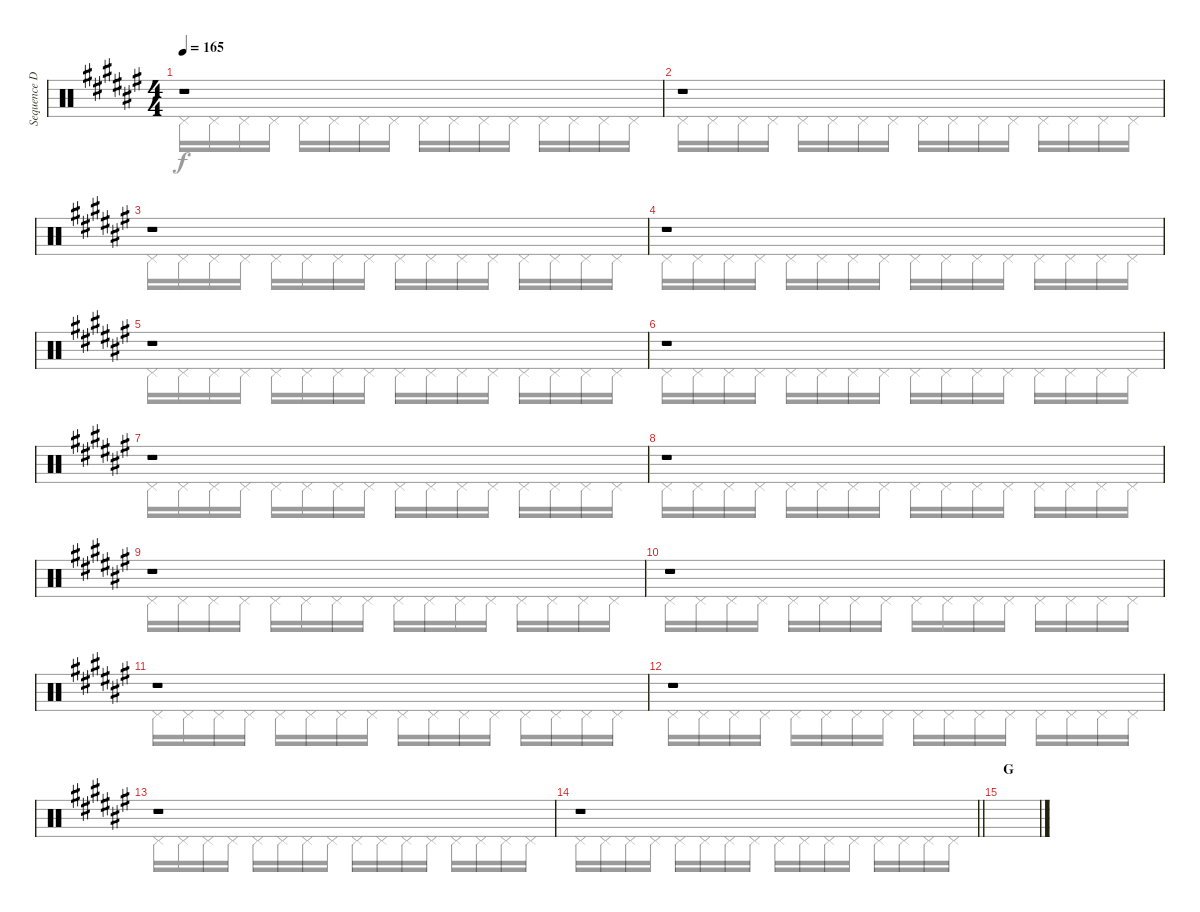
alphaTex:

\track ("Sequence Drums" "Sequence D") {instrument percussion}
\staff {score}
\articulation defaults
\voice
\ts (4 4)
\tempo 165
\clef neutral
\ks f#
r.1{dy p} |
r.1 |
r.1 |
r.1 |
r.1 |
r.1 |
r.1 |
r.1 |
r.1 |
r.1 |
r.1 |
r.1 |
r.1 |
\barLineRight lightlight
r.1 |
\section ("" "G")
|
\voice
\clef neutral
\ottava regular
\simile none
\ks f# "Pedal Hi-Hat (hit)".16{dy f} "Pedal Hi-Hat (hit)".16 "Pedal Hi-Hat (hit)".16 "Pedal Hi-Hat (hit)".16 "Pedal Hi-Hat (hit)".16 "Pedal Hi-Hat (hit)".16 "Pedal Hi-Hat (hit)".16 "Pedal Hi-Hat (hit)".16 "Pedal Hi-Hat (hit)".16 "Pedal Hi-Hat (hit)".16 "Pedal Hi-Hat (hit)".16 "Pedal Hi-Hat (hit)".16 "Pedal Hi-Hat (hit)".16 "Pedal Hi-Hat (hit)".16 "Pedal Hi-Hat (hit)".16 "Pedal Hi-Hat (hit)".16
|
"Pedal Hi-Hat (hit)".16 "Pedal Hi-Hat (hit)".16 "Pedal Hi-Hat (hit)".16 "Pedal Hi-Hat (hit)".16 "Pedal Hi-Hat (hit)".16 "Pedal Hi-Hat (hit)".16 "Pedal Hi-Hat (hit)".16 "Pedal Hi-Hat (hit)".16 "Pedal Hi-Hat (hit)".16 "Pedal Hi-Hat (hit)".16 "Pedal Hi-Hat (hit)".16 "Pedal Hi-Hat (hit)".16 "Pedal Hi-Hat (hit)".16 "Pedal Hi-Hat (hit)".16 "Pedal Hi-Hat (hit)".16 "Pedal Hi-Hat (hit)".16 |
"Pedal Hi-Hat (hit)".16 "Pedal Hi-Hat (hit)".16 "Pedal Hi-Hat (hit)".16 "Pedal Hi-Hat (hit)".16 "Pedal Hi-Hat (hit)".16 "Pedal Hi-Hat (hit)".16 "Pedal Hi-Hat (hit)".16 "Pedal Hi-Hat (hit)".16 "Pedal Hi-Hat (hit)".16 "Pedal Hi-Hat (hit)".16 "Pedal Hi-Hat (hit)".16 "Pedal Hi-Hat (hit)".16 "Pedal Hi-Hat (hit)".16 "Pedal Hi-Hat (hit)".16 "Pedal Hi-Hat (hit)".16 "Pedal Hi-Hat (hit)".16 |
"Pedal Hi-Hat (hit)".16 "Pedal Hi-Hat (hit)".16 "Pedal Hi-Hat (hit)".16 "Pedal Hi-Hat (hit)".16 "Pedal Hi-Hat (hit)".16 "Pedal Hi-Hat (hit)".16 "Pedal Hi-Hat (hit)".16 "Pedal Hi-Hat (hit)".16 "Pedal Hi-Hat (hit)".16 "Pedal Hi-Hat (hit)".16 "Pedal Hi-Hat (hit)".16 "Pedal Hi-Hat (hit)".16 "Pedal Hi-Hat (hit)".16 "Pedal Hi-Hat (hit)".16 "Pedal Hi-Hat (hit)".16 "Pedal Hi-Hat (hit)".16 |
"Pedal Hi-Hat (hit)".16 "Pedal Hi-Hat (hit)".16 "Pedal Hi-Hat (hit)".16 "Pedal Hi-Hat (hit)".16 "Pedal Hi-Hat (hit)".16 "Pedal Hi-Hat (hit)".16 "Pedal Hi-Hat (hit)".16 "Pedal Hi-Hat (hit)".16 "Pedal Hi-Hat (hit)".16 "Pedal Hi-Hat (hit)".16 "Pedal Hi-Hat (hit)".16 "Pedal Hi-Hat (hit)".16 "Pedal Hi-Hat (hit)".16 "Pedal Hi-Hat (hit)".16 "Pedal Hi-Hat (hit)".16 "Pedal Hi-Hat (hit)".16 |
"Pedal Hi-Hat (hit)".16 "Pedal Hi-Hat (hit)".16 "Pedal Hi-Hat (hit)".16 "Pedal Hi-Hat (hit)".16 "Pedal Hi-Hat (hit)".16 "Pedal Hi-Hat (hit)".16 "Pedal Hi-Hat (hit)".16 "Pedal Hi-Hat (hit)".16 "Pedal Hi-Hat (hit)".16 "Pedal Hi-Hat (hit)".16 "Pedal Hi-Hat (hit)".16 "Pedal Hi-Hat (hit)".16 "Pedal Hi-Hat (hit)".16 "Pedal Hi-Hat (hit)".16 "Pedal Hi-Hat (hit)".16 "Pedal Hi-Hat (hit)".16 |
"Pedal Hi-Hat (hit)".16 "Pedal Hi-Hat (hit)".16 "Pedal Hi-Hat (hit)".16 "Pedal Hi-Hat (hit)".16 "Pedal Hi-Hat (hit)".16 "Pedal Hi-Hat (hit)".16 "Pedal Hi-Hat (hit)".16 "Pedal Hi-Hat (hit)".16 "Pedal Hi-Hat (hit)".16 "Pedal Hi-Hat (hit)".16 "Pedal Hi-Hat (hit)".16 "Pedal Hi-Hat (hit)".16 "Pedal Hi-Hat (hit)".16 "Pedal Hi-Hat (hit)".16 "Pedal Hi-Hat (hit)".16 "Pedal Hi-Hat (hit)".16 |
"Pedal Hi-Hat (hit)".16 "Pedal Hi-Hat (hit)".16 "Pedal Hi-Hat (hit)".16 "Pedal Hi-Hat (hit)".16 "Pedal Hi-Hat (hit)".16 "Pedal Hi-Hat (hit)".16 "Pedal Hi-Hat (hit)".16 "Pedal Hi-Hat (hit)".16 "Pedal Hi-Hat (hit)".16 "Pedal Hi-Hat (hit)".16 "Pedal Hi-Hat (hit)".16 "Pedal Hi-Hat (hit)".16 "Pedal Hi-Hat (hit)".16 "Pedal Hi-Hat (hit)".16 "Pedal Hi-Hat (hit)".16 "Pedal Hi-Hat (hit)".16 |
"Pedal Hi-Hat (hit)".16 "Pedal Hi-Hat (hit)".16 "Pedal Hi-Hat (hit)".16 "Pedal Hi-Hat (hit)".16 "Pedal Hi-Hat (hit)".16 "Pedal Hi-Hat (hit)".16 "Pedal Hi-Hat (hit)".16 "Pedal Hi-Hat (hit)".16 "Pedal Hi-Hat (hit)".16 "Pedal Hi-Hat (hit)".16 "Pedal Hi-Hat (hit)".16 "Pedal Hi-Hat (hit)".16 "Pedal Hi-Hat (hit)".16 "Pedal Hi-Hat (hit)".16 "Pedal Hi-Hat (hit)".16 "Pedal Hi-Hat (hit)".16 |
"Pedal Hi-Hat (hit)".16 "Pedal Hi-Hat (hit)".16 "Pedal Hi-Hat (hit)".16 "Pedal Hi-Hat (hit)".16 "Pedal Hi-Hat (hit)".16 "Pedal Hi-Hat (hit)".16 "Pedal Hi-Hat (hit)".16 "Pedal Hi-Hat (hit)".16 "Pedal Hi-Hat (hit)".16 "Pedal Hi-Hat (hit)".16 "Pedal Hi-Hat (hit)".16 "Pedal Hi-Hat (hit)".16 "Pedal Hi-Hat (hit)".16 "Pedal Hi-Hat (hit)".16 "Pedal Hi-Hat (hit)".16 "Pedal Hi-Hat (hit)".16 |
"Pedal Hi-Hat (hit)".16 "Pedal Hi-Hat (hit)".16 "Pedal Hi-Hat (hit)".16 "Pedal Hi-Hat (hit)".16 "Pedal Hi-Hat (hit)".16 "Pedal Hi-Hat (hit)".16 "Pedal Hi-Hat (hit)".16 "Pedal Hi-Hat (hit)".16 "Pedal Hi-Hat (hit)".16 "Pedal Hi-Hat (hit)".16 "Pedal Hi-Hat (hit)".16 "Pedal Hi-Hat (hit)".16 "Pedal Hi-Hat (hit)".16 "Pedal Hi-Hat (hit)".16 "Pedal Hi-Hat (hit)".16 "Pedal Hi-Hat (hit)".16 |
"Pedal Hi-Hat (hit)".16 "Pedal Hi-Hat (hit)".16 "Pedal Hi-Hat (hit)".16 "Pedal Hi-Hat (hit)".16 "Pedal Hi-Hat (hit)".16 "Pedal Hi-Hat (hit)".16 "Pedal Hi-Hat (hit)".16 "Pedal Hi-Hat (hit)".16 "Pedal Hi-Hat (hit)".16 "Pedal Hi-Hat (hit)".16 "Pedal Hi-Hat (hit)".16 "Pedal Hi-Hat (hit)".16 "Pedal Hi-Hat (hit)".16 "Pedal Hi-Hat (hit)".16 "Pedal Hi-Hat (hit)".16 "Pedal Hi-Hat (hit)".16 |
"Pedal Hi-Hat (hit)".16 "Pedal Hi-Hat (hit)".16 "Pedal Hi-Hat (hit)".16 "Pedal Hi-Hat (hit)".16 "Pedal Hi-Hat (hit)".16 "Pedal Hi-Hat (hit)".16 "Pedal Hi-Hat (hit)".16 "Pedal Hi-Hat (hit)".16 "Pedal Hi-Hat (hit)".16 "Pedal Hi-Hat (hit)".16 "Pedal Hi-Hat (hit)".16 "Pedal Hi-Hat (hit)".16 "Pedal Hi-Hat (hit)".16 "Pedal Hi-Hat (hit)".16 "Pedal Hi-Hat (hit)".16 "Pedal Hi-Hat (hit)".16 |
\barLineRight lightlight "Pedal Hi-Hat (hit)".16 "Pedal Hi-Hat (hit)".16 "Pedal Hi-Hat (hit)".16 "Pedal Hi-Hat (hit)".16 "Pedal Hi-Hat (hit)".16 "Pedal Hi-Hat (hit)".16 "Pedal Hi-Hat (hit)".16 "Pedal Hi-Hat (hit)".16 "Pedal Hi-Hat (hit)".16 "Pedal Hi-Hat (hit)".16 "Pedal Hi-Hat (hit)".16 "Pedal Hi-Hat (hit)".16 "Pedal Hi-Hat (hit)".16 "Pedal Hi-Hat (hit)".16 "Pedal Hi-Hat (hit)".16 "Pedal Hi-Hat (hit)".16
|
|
